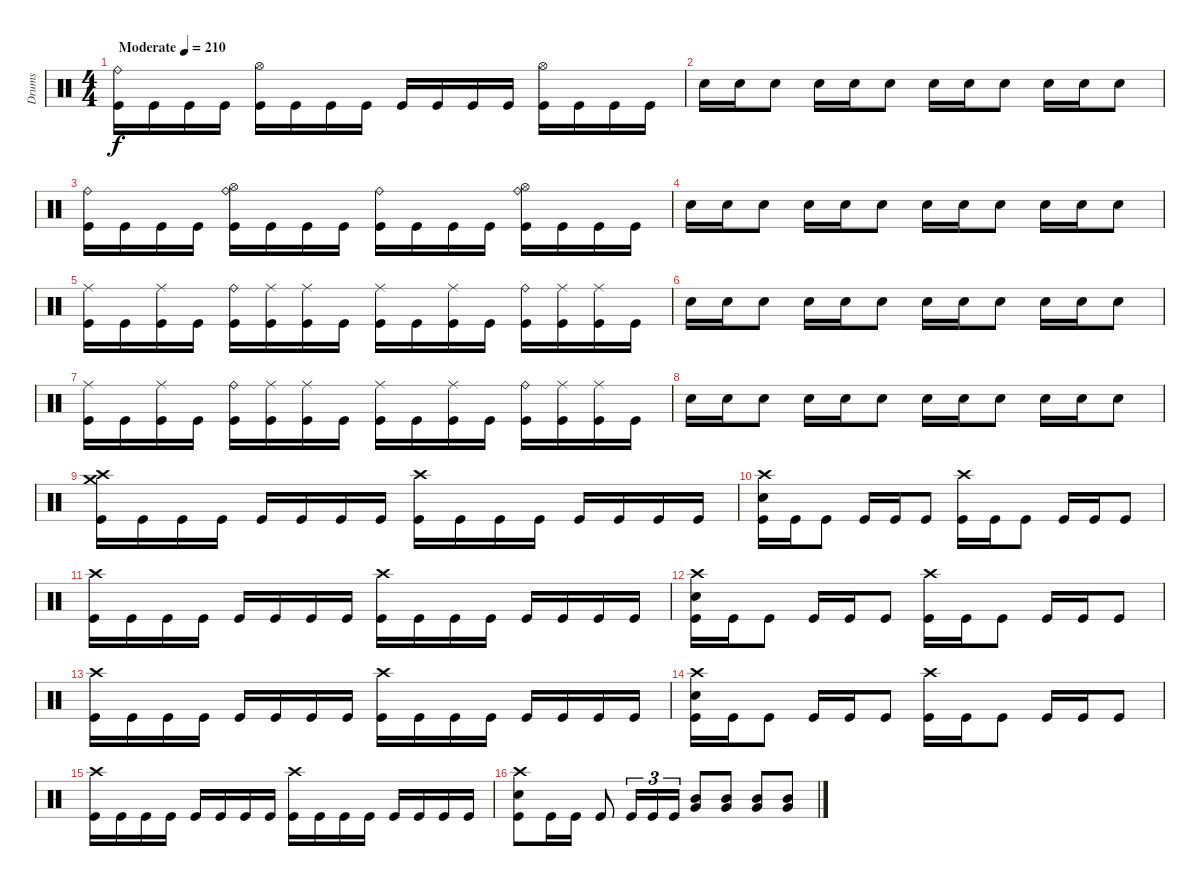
\track ("Drums" "Drums") {instrument percussion}
\staff {score}
\articulation defaults
\ts (4 4)
\tempo (210 "Moderate")
\clef neutral
\ks c
("Kick (hit)" "Ride (bell)").16{dy f} "Kick (hit)".16 "Kick (hit)".16 "Kick (hit)".16 ("Kick (hit)" "Hi-Hat (open)").16 "Kick (hit)".16 "Kick (hit)".16 "Kick (hit)".16 "Kick (hit)".16 "Kick (hit)".16 "Kick (hit)".16 "Kick (hit)".16 ("Kick (hit)" "Hi-Hat (open)").16 "Kick (hit)".16 "Kick (hit)".16 "Kick (hit)".16 |
"Electric Snare (hit)".16 "Electric Snare (hit)".16 "Electric Snare (hit)".8 "Electric Snare (hit)".16 "Electric Snare (hit)".16 "Electric Snare (hit)".8 "Electric Snare (hit)".16 "Electric Snare (hit)".16 "Electric Snare (hit)".8 "Electric Snare (hit)".16 "Electric Snare (hit)".16 "Electric Snare (hit)".8 |
("Kick (hit)" "Ride (bell)").16 "Kick (hit)".16 "Kick (hit)".16 "Kick (hit)".16 ("Kick (hit)" "Hi-Hat (open)" "Ride (bell)").16 "Kick (hit)".16 "Kick (hit)".16 "Kick (hit)".16 ("Kick (hit)" "Ride (bell)").16 "Kick (hit)".16 "Kick (hit)".16 "Kick (hit)".16 ("Kick (hit)" "Hi-Hat (open)" "Ride (bell)").16 "Kick (hit)".16 "Kick (hit)".16 "Kick (hit)".16 |
"Electric Snare (hit)".16 "Electric Snare (hit)".16 "Electric Snare (hit)".8 "Electric Snare (hit)".16 "Electric Snare (hit)".16 "Electric Snare (hit)".8 "Electric Snare (hit)".16 "Electric Snare (hit)".16 "Electric Snare (hit)".8 "Electric Snare (hit)".16 "Electric Snare (hit)".16 "Electric Snare (hit)".8 |
("Kick (hit)" "Ride (middle)").16 "Kick (hit)".16 ("Kick (hit)" "Ride (middle)").16 "Kick (hit)".16 ("Kick (hit)" "Ride (bell)").16 ("Kick (hit)" "Ride (middle)").16 ("Kick (hit)" "Ride (middle)").16 "Kick (hit)".16 ("Kick (hit)" "Ride (middle)").16 "Kick (hit)".16 ("Kick (hit)" "Ride (middle)").16 "Kick (hit)".16 ("Kick (hit)" "Ride (bell)").16 ("Kick (hit)" "Ride (middle)").16 ("Kick (hit)" "Ride (middle)").16 "Kick (hit)".16 |
"Electric Snare (hit)".16 "Electric Snare (hit)".16 "Electric Snare (hit)".8 "Electric Snare (hit)".16 "Electric Snare (hit)".16 "Electric Snare (hit)".8 "Electric Snare (hit)".16 "Electric Snare (hit)".16 "Electric Snare (hit)".8 "Electric Snare (hit)".16 "Electric Snare (hit)".16 "Electric Snare (hit)".8 |
("Kick (hit)" "Ride (middle)").16 "Kick (hit)".16 ("Kick (hit)" "Ride (middle)").16 "Kick (hit)".16 ("Kick (hit)" "Ride (bell)").16 ("Kick (hit)" "Ride (middle)").16 ("Kick (hit)" "Ride (middle)").16 "Kick (hit)".16 ("Kick (hit)" "Ride (middle)").16 "Kick (hit)".16 ("Kick (hit)" "Ride (middle)").16 "Kick (hit)".16 ("Kick (hit)" "Ride (bell)").16 ("Kick (hit)" "Ride (middle)").16 ("Kick (hit)" "Ride (middle)").16 "Kick (hit)".16 |
"Electric Snare (hit)".16 "Electric Snare (hit)".16 "Electric Snare (hit)".8 "Electric Snare (hit)".16 "Electric Snare (hit)".16 "Electric Snare (hit)".8 "Electric Snare (hit)".16 "Electric Snare (hit)".16 "Electric Snare (hit)".8 "Electric Snare (hit)".16 "Electric Snare (hit)".16 "Electric Snare (hit)".8 |
("Kick (hit)" "Crash high (hit)" "Crash medium (hit)").16 "Kick (hit)".16 "Kick (hit)".16 "Kick (hit)".16 "Kick (hit)".16 "Kick (hit)".16 "Kick (hit)".16 "Kick (hit)".16 ("Kick (hit)" "Crash high (hit)").16 "Kick (hit)".16 "Kick (hit)".16 "Kick (hit)".16 "Kick (hit)".16 "Kick (hit)".16 "Kick (hit)".16 "Kick (hit)".16 |
("Kick (hit)" "Electric Snare (hit)" "Crash high (hit)").16 "Kick (hit)".16 "Kick (hit)".8 "Kick (hit)".16 "Kick (hit)".16 "Kick (hit)".8 ("Kick (hit)" "Crash high (hit)").16 "Kick (hit)".16 "Kick (hit)".8 "Kick (hit)".16 "Kick (hit)".16 "Kick (hit)".8 |
("Kick (hit)" "Crash high (hit)").16 "Kick (hit)".16 "Kick (hit)".16 "Kick (hit)".16 "Kick (hit)".16 "Kick (hit)".16 "Kick (hit)".16 "Kick (hit)".16 ("Kick (hit)" "Crash high (hit)").16 "Kick (hit)".16 "Kick (hit)".16 "Kick (hit)".16 "Kick (hit)".16 "Kick (hit)".16 "Kick (hit)".16 "Kick (hit)".16 |
("Kick (hit)" "Electric Snare (hit)" "Crash high (hit)").16 "Kick (hit)".16 "Kick (hit)".8 "Kick (hit)".16 "Kick (hit)".16 "Kick (hit)".8 ("Kick (hit)" "Crash high (hit)").16 "Kick (hit)".16 "Kick (hit)".8 "Kick (hit)".16 "Kick (hit)".16 "Kick (hit)".8 |
("Kick (hit)" "Crash high (hit)").16 "Kick (hit)".16 "Kick (hit)".16 "Kick (hit)".16 "Kick (hit)".16 "Kick (hit)".16 "Kick (hit)".16 "Kick (hit)".16 ("Kick (hit)" "Crash high (hit)").16 "Kick (hit)".16 "Kick (hit)".16 "Kick (hit)".16 "Kick (hit)".16 "Kick (hit)".16 "Kick (hit)".16 "Kick (hit)".16 |
("Kick (hit)" "Electric Snare (hit)" "Crash high (hit)").16 "Kick (hit)".16 "Kick (hit)".8 "Kick (hit)".16 "Kick (hit)".16 "Kick (hit)".8 ("Kick (hit)" "Crash high (hit)").16 "Kick (hit)".16 "Kick (hit)".8 "Kick (hit)".16 "Kick (hit)".16 "Kick (hit)".8 |
("Kick (hit)" "Crash high (hit)").16 "Kick (hit)".16 "Kick (hit)".16 "Kick (hit)".16 "Kick (hit)".16 "Kick (hit)".16 "Kick (hit)".16 "Kick (hit)".16 ("Kick (hit)" "Crash high (hit)").16 "Kick (hit)".16 "Kick (hit)".16 "Kick (hit)".16 "Kick (hit)".16 "Kick (hit)".16 "Kick (hit)".16 "Kick (hit)".16 |
("Kick (hit)" "Electric Snare (hit)" "Crash high (hit)").8 "Kick (hit)".16 "Kick (hit)".16 "Kick (hit)".8 "Kick (hit)".16{tu (3 2)} "Kick (hit)".16{tu (3 2)} "Kick (hit)".16{tu (3 2)} ("Very Low Tom (hit)" "Mid Tom (hit)").8 ("Very Low Tom (hit)" "Mid Tom (hit)").8 ("Very Low Tom (hit)" "Mid Tom (hit)").8 ("Very Low Tom (hit)" "Mid Tom (hit)").8
